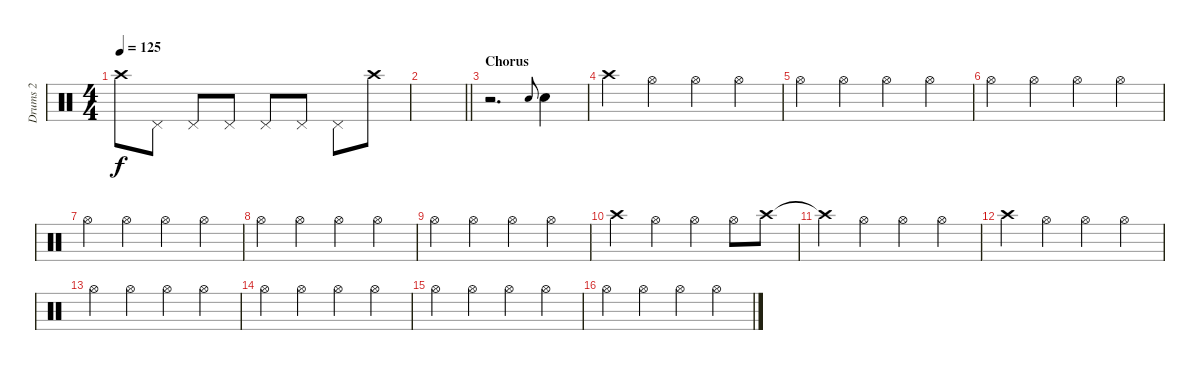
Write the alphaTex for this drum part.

\track ("Drums 2" "Drums 2") {instrument percussion}
\staff {score}
\articulation defaults
\ts (4 4)
\tempo 125
\clef neutral
\ks c "Crash high (hit)".8{dy f} "Pedal Hi-Hat (hit)".8 "Pedal Hi-Hat (hit)".8 "Pedal Hi-Hat (hit)".8 "Pedal Hi-Hat (hit)".8 "Pedal Hi-Hat (hit)".8 "Pedal Hi-Hat (hit)".8 "Crash high (hit)".8
|
\barLineRight lightlight
|
\section ("" "Chorus")
r.2{d} "Snare (hit) 2".8{gr onbeat} "Snare (hit) 2".4 |
"Crash high (hit)".4 "Hi-Hat (open)".4 "Hi-Hat (open)".4 "Hi-Hat (open)".4 |
"Hi-Hat (open)".4 "Hi-Hat (open)".4 "Hi-Hat (open)".4 "Hi-Hat (open)".4 |
"Hi-Hat (open)".4 "Hi-Hat (open)".4 "Hi-Hat (open)".4 "Hi-Hat (open)".4 |
"Hi-Hat (open)".4 "Hi-Hat (open)".4 "Hi-Hat (open)".4 "Hi-Hat (open)".4 |
"Hi-Hat (open)".4 "Hi-Hat (open)".4 "Hi-Hat (open)".4 "Hi-Hat (open)".4 |
"Hi-Hat (open)".4 "Hi-Hat (open)".4 "Hi-Hat (open)".4 "Hi-Hat (open)".4 |
"Crash high (hit)".4 "Hi-Hat (open)".4 "Hi-Hat (open)".4 "Hi-Hat (open)".8 "Crash high (hit)".8 |
"Crash high (hit)"{t}.4 "Hi-Hat (open)".4 "Hi-Hat (open)".4 "Hi-Hat (open)".4 |
"Crash high (hit)".4 "Hi-Hat (open)".4 "Hi-Hat (open)".4 "Hi-Hat (open)".4 |
"Hi-Hat (open)".4 "Hi-Hat (open)".4 "Hi-Hat (open)".4 "Hi-Hat (open)".4 |
"Hi-Hat (open)".4 "Hi-Hat (open)".4 "Hi-Hat (open)".4 "Hi-Hat (open)".4 |
"Hi-Hat (open)".4 "Hi-Hat (open)".4 "Hi-Hat (open)".4 "Hi-Hat (open)".4 |
"Hi-Hat (open)".4 "Hi-Hat (open)".4 "Hi-Hat (open)".4 "Hi-Hat (open)".4
